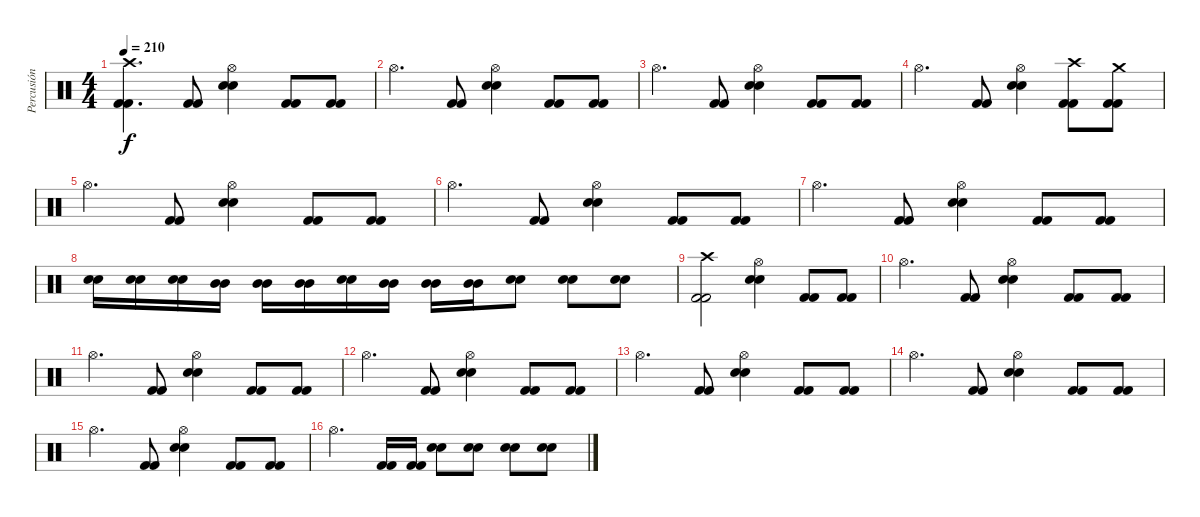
\track ("Percusión" "Percusión") {instrument percussion}
\staff {score}
\articulation defaults
\ts (4 4)
\tempo 210
\clef neutral
\ks c
("Kick (hit) 2" "Kick (hit) 2" "Crash high (hit)").4{d dy f} ("Kick (hit) 2" "Kick (hit) 2").8 ("Electric Snare (hit)" "Electric Snare (hit)" "Hi-Hat (open)").4 ("Kick (hit) 2" "Kick (hit) 2").8 ("Kick (hit) 2" "Kick (hit) 2").8 |
"Hi-Hat (open)".4{d} ("Kick (hit) 2" "Kick (hit) 2").8 ("Electric Snare (hit)" "Electric Snare (hit)" "Hi-Hat (open)").4 ("Kick (hit) 2" "Kick (hit) 2").8 ("Kick (hit) 2" "Kick (hit) 2").8 |
"Hi-Hat (open)".4{d} ("Kick (hit) 2" "Kick (hit) 2").8 ("Electric Snare (hit)" "Electric Snare (hit)" "Hi-Hat (open)").4 ("Kick (hit) 2" "Kick (hit) 2").8 ("Kick (hit) 2" "Kick (hit) 2").8 |
"Hi-Hat (open)".4{d} ("Kick (hit) 2" "Kick (hit) 2").8 ("Electric Snare (hit)" "Electric Snare (hit)" "Hi-Hat (open)").4 ("Kick (hit) 2" "Kick (hit) 2" "Crash high (hit)").8 ("Kick (hit) 2" "Kick (hit) 2" "Crash medium (hit)").8 |
"Hi-Hat (open)".4{d} ("Kick (hit) 2" "Kick (hit) 2").8 ("Electric Snare (hit)" "Electric Snare (hit)" "Hi-Hat (open)").4 ("Kick (hit) 2" "Kick (hit) 2").8 ("Kick (hit) 2" "Kick (hit) 2").8 |
"Hi-Hat (open)".4{d} ("Kick (hit) 2" "Kick (hit) 2").8 ("Electric Snare (hit)" "Electric Snare (hit)" "Hi-Hat (open)").4 ("Kick (hit) 2" "Kick (hit) 2").8 ("Kick (hit) 2" "Kick (hit) 2").8 |
"Hi-Hat (open)".4{d} ("Kick (hit) 2" "Kick (hit) 2").8 ("Electric Snare (hit)" "Electric Snare (hit)" "Hi-Hat (open)").4 ("Kick (hit) 2" "Kick (hit) 2").8 ("Kick (hit) 2" "Kick (hit) 2").8 |
("Electric Snare (hit)" "Electric Snare (hit)").16 ("Electric Snare (hit)" "Electric Snare (hit)").16 ("Electric Snare (hit)" "Electric Snare (hit)").16 ("Mid Tom (hit)" "Mid Tom (hit)").16 ("Mid Tom (hit)" "Mid Tom (hit)").16 ("Mid Tom (hit)" "Mid Tom (hit)").16 ("Electric Snare (hit)" "Electric Snare (hit)").16 ("Mid Tom (hit)" "Mid Tom (hit)").16 ("Mid Tom (hit)" "Mid Tom (hit)").16 ("Mid Tom (hit)" "Mid Tom (hit)").16 ("Electric Snare (hit)" "Electric Snare (hit)").8 ("Electric Snare (hit)" "Electric Snare (hit)").8 ("Electric Snare (hit)" "Electric Snare (hit)").8 |
("Kick (hit) 2" "Kick (hit) 2" "Crash high (hit)").2 ("Electric Snare (hit)" "Electric Snare (hit)" "Hi-Hat (open)").4 ("Kick (hit) 2" "Kick (hit) 2").8 ("Kick (hit) 2" "Kick (hit) 2").8 |
"Hi-Hat (open)".4{d} ("Kick (hit) 2" "Kick (hit) 2").8 ("Electric Snare (hit)" "Electric Snare (hit)" "Hi-Hat (open)").4 ("Kick (hit) 2" "Kick (hit) 2").8 ("Kick (hit) 2" "Kick (hit) 2").8 |
"Hi-Hat (open)".4{d} ("Kick (hit) 2" "Kick (hit) 2").8 ("Electric Snare (hit)" "Electric Snare (hit)" "Hi-Hat (open)").4 ("Kick (hit) 2" "Kick (hit) 2").8 ("Kick (hit) 2" "Kick (hit) 2").8 |
"Hi-Hat (open)".4{d} ("Kick (hit) 2" "Kick (hit) 2").8 ("Electric Snare (hit)" "Electric Snare (hit)" "Hi-Hat (open)").4 ("Kick (hit) 2" "Kick (hit) 2").8 ("Kick (hit) 2" "Kick (hit) 2").8 |
"Hi-Hat (open)".4{d} ("Kick (hit) 2" "Kick (hit) 2").8 ("Electric Snare (hit)" "Electric Snare (hit)" "Hi-Hat (open)").4 ("Kick (hit) 2" "Kick (hit) 2").8 ("Kick (hit) 2" "Kick (hit) 2").8 |
"Hi-Hat (open)".4{d} ("Kick (hit) 2" "Kick (hit) 2").8 ("Electric Snare (hit)" "Electric Snare (hit)" "Hi-Hat (open)").4 ("Kick (hit) 2" "Kick (hit) 2").8 ("Kick (hit) 2" "Kick (hit) 2").8 |
"Hi-Hat (open)".4{d} ("Kick (hit) 2" "Kick (hit) 2").8 ("Electric Snare (hit)" "Electric Snare (hit)" "Hi-Hat (open)").4 ("Kick (hit) 2" "Kick (hit) 2").8 ("Kick (hit) 2" "Kick (hit) 2").8 |
"Hi-Hat (open)".4{d} ("Kick (hit) 2" "Kick (hit) 2").16 ("Kick (hit) 2" "Kick (hit) 2").16 ("Electric Snare (hit)" "Electric Snare (hit)").8 ("Electric Snare (hit)" "Electric Snare (hit)").8 ("Electric Snare (hit)" "Electric Snare (hit)").8 ("Electric Snare (hit)" "Electric Snare (hit)").8
